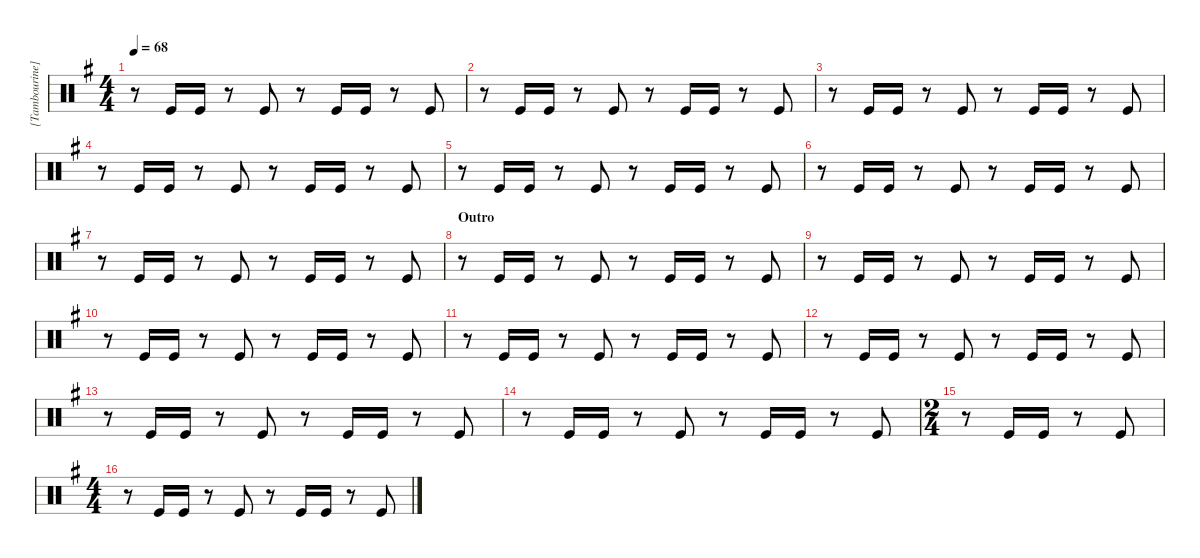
\hideDynamics
\bracketExtendMode groupsimilarinstruments
\firstSystemTrackNameMode fullname
\otherSystemsTrackNameMode fullname
\otherSystemsTrackNameOrientation horizontal
\track ("[Tambourine]" "Tamb.") {instrument percussion}
\staff {score}
\articulation defaults
\ts (4 4)
\tempo 68
\clef neutral
\ks g
r.8{dy f} "Kick (hit)".16 "Kick (hit)".16 r.8 "Kick (hit)".8 r.8 "Kick (hit)".16 "Kick (hit)".16 r.8 "Kick (hit)".8 |
r.8 "Kick (hit)".16 "Kick (hit)".16 r.8 "Kick (hit)".8 r.8 "Kick (hit)".16 "Kick (hit)".16 r.8 "Kick (hit)".8 |
r.8 "Kick (hit)".16 "Kick (hit)".16 r.8 "Kick (hit)".8 r.8 "Kick (hit)".16 "Kick (hit)".16 r.8 "Kick (hit)".8 |
r.8 "Kick (hit)".16 "Kick (hit)".16 r.8 "Kick (hit)".8 r.8 "Kick (hit)".16 "Kick (hit)".16 r.8 "Kick (hit)".8 |
r.8 "Kick (hit)".16 "Kick (hit)".16 r.8 "Kick (hit)".8 r.8 "Kick (hit)".16 "Kick (hit)".16 r.8 "Kick (hit)".8 |
r.8 "Kick (hit)".16 "Kick (hit)".16 r.8 "Kick (hit)".8 r.8 "Kick (hit)".16 "Kick (hit)".16 r.8 "Kick (hit)".8 |
r.8 "Kick (hit)".16 "Kick (hit)".16 r.8 "Kick (hit)".8 r.8 "Kick (hit)".16 "Kick (hit)".16 r.8 "Kick (hit)".8 |
\section ("" "Outro")
r.8 "Kick (hit)".16 "Kick (hit)".16 r.8 "Kick (hit)".8 r.8 "Kick (hit)".16 "Kick (hit)".16 r.8 "Kick (hit)".8 |
r.8 "Kick (hit)".16 "Kick (hit)".16 r.8 "Kick (hit)".8 r.8 "Kick (hit)".16 "Kick (hit)".16 r.8 "Kick (hit)".8 |
r.8 "Kick (hit)".16 "Kick (hit)".16 r.8 "Kick (hit)".8 r.8 "Kick (hit)".16 "Kick (hit)".16 r.8 "Kick (hit)".8 |
r.8 "Kick (hit)".16 "Kick (hit)".16 r.8 "Kick (hit)".8 r.8 "Kick (hit)".16 "Kick (hit)".16 r.8 "Kick (hit)".8 |
r.8 "Kick (hit)".16 "Kick (hit)".16 r.8 "Kick (hit)".8 r.8 "Kick (hit)".16 "Kick (hit)".16 r.8 "Kick (hit)".8 |
r.8 "Kick (hit)".16 "Kick (hit)".16 r.8 "Kick (hit)".8 r.8 "Kick (hit)".16 "Kick (hit)".16 r.8 "Kick (hit)".8 |
r.8 "Kick (hit)".16 "Kick (hit)".16 r.8 "Kick (hit)".8 r.8 "Kick (hit)".16 "Kick (hit)".16 r.8 "Kick (hit)".8 |
\ts (2 4)
r.8 "Kick (hit)".16 "Kick (hit)".16 r.8 "Kick (hit)".8 |
\ts (4 4)
r.8 "Kick (hit)".16 "Kick (hit)".16 r.8 "Kick (hit)".8 r.8 "Kick (hit)".16 "Kick (hit)".16 r.8 "Kick (hit)".8
